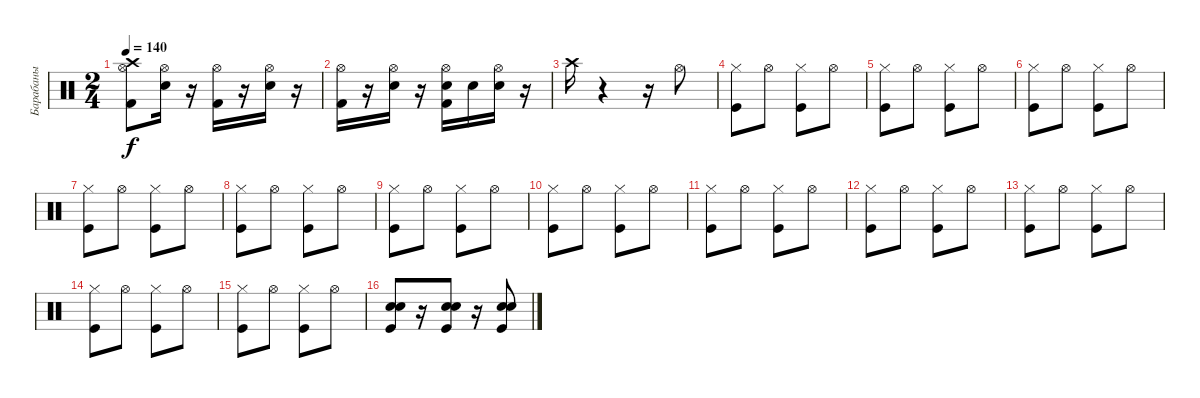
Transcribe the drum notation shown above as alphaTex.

\track ("Барабаны" "Барабаны") {instrument percussion}
\staff {score}
\articulation defaults
\ts (2 4)
\tempo 140
\clef neutral
\ks c
("Kick (hit) 2" "Hi-Hat (open)" "Crash high (hit)").8{dy f} ("Electric Snare (hit)" "Hi-Hat (open)").16 r.16 ("Kick (hit) 2" "Hi-Hat (open)").16 r.16 ("Electric Snare (hit)" "Hi-Hat (open)").16 r.16 |
("Kick (hit) 2" "Hi-Hat (open)").16 r.16 ("Electric Snare (hit)" "Hi-Hat (open)").16 r.16 ("Hi-Hat (open)" "Electric Snare (hit)" "Kick (hit) 2").16 "Electric Snare (hit)".16 ("Hi-Hat (open)" "Electric Snare (hit)").16 r.16 |
"Crash high (hit)".16 r.4 r.16 "Hi-Hat (open)".8 |
("Kick (hit)" "Hi-Hat (closed)").8 "Hi-Hat (open)".8 ("Kick (hit)" "Hi-Hat (closed)").8 "Hi-Hat (open)".8 |
("Kick (hit)" "Hi-Hat (closed)").8 "Hi-Hat (open)".8 ("Kick (hit)" "Hi-Hat (closed)").8 "Hi-Hat (open)".8 |
("Kick (hit)" "Hi-Hat (closed)").8 "Hi-Hat (open)".8 ("Kick (hit)" "Hi-Hat (closed)").8 "Hi-Hat (open)".8 |
("Kick (hit)" "Hi-Hat (closed)").8 "Hi-Hat (open)".8 ("Kick (hit)" "Hi-Hat (closed)").8 "Hi-Hat (open)".8 |
("Kick (hit)" "Hi-Hat (closed)").8 "Hi-Hat (open)".8 ("Kick (hit)" "Hi-Hat (closed)").8 "Hi-Hat (open)".8 |
("Kick (hit)" "Hi-Hat (closed)").8 "Hi-Hat (open)".8 ("Kick (hit)" "Hi-Hat (closed)").8 "Hi-Hat (open)".8 |
("Kick (hit)" "Hi-Hat (closed)").8 "Hi-Hat (open)".8 ("Kick (hit)" "Hi-Hat (closed)").8 "Hi-Hat (open)".8 |
("Kick (hit)" "Hi-Hat (closed)").8 "Hi-Hat (open)".8 ("Kick (hit)" "Hi-Hat (closed)").8 "Hi-Hat (open)".8 |
("Kick (hit)" "Hi-Hat (closed)").8 "Hi-Hat (open)".8 ("Kick (hit)" "Hi-Hat (closed)").8 "Hi-Hat (open)".8 |
("Kick (hit)" "Hi-Hat (closed)").8 "Hi-Hat (open)".8 ("Kick (hit)" "Hi-Hat (closed)").8 "Hi-Hat (open)".8 |
("Kick (hit)" "Hi-Hat (closed)").8 "Hi-Hat (open)".8 ("Kick (hit)" "Hi-Hat (closed)").8 "Hi-Hat (open)".8 |
("Kick (hit)" "Hi-Hat (closed)").8 "Hi-Hat (open)".8 ("Kick (hit)" "Hi-Hat (closed)").8 "Hi-Hat (open)".8 |
("Electric Snare (hit)" "Electric Snare (hit)" "Kick (hit)").8 r.16 ("Electric Snare (hit)" "Kick (hit)" "Electric Snare (hit)").8 r.16 ("Electric Snare (hit)" "Kick (hit)" "Electric Snare (hit)").8
